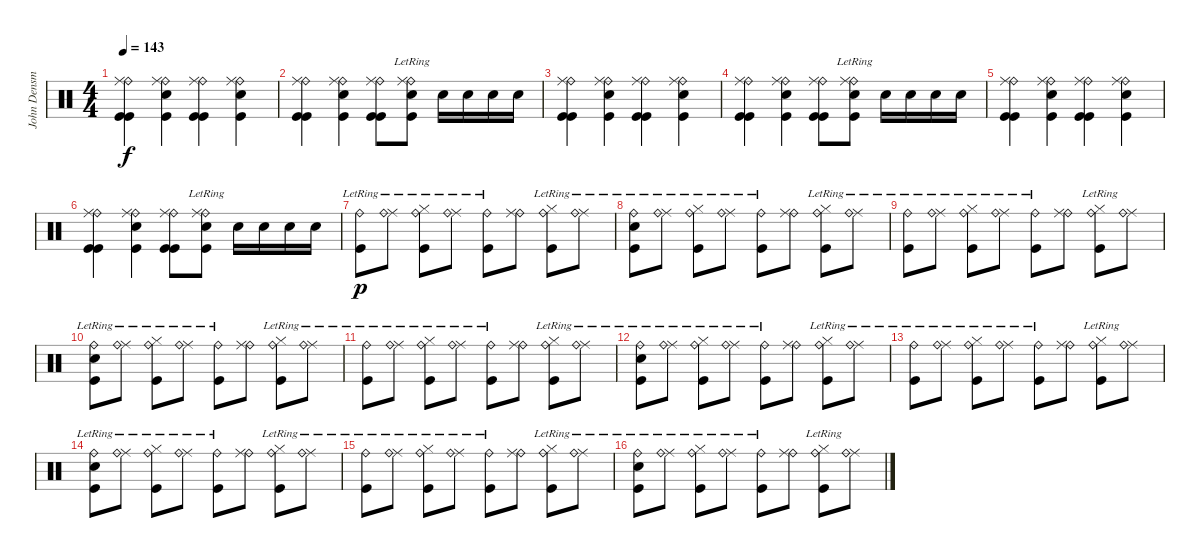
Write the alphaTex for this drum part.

\track ("John Densmore" "John Densm") {instrument percussion}
\staff {score}
\articulation defaults
\ts (4 4)
\tempo 143
\clef neutral
\ks c
("Ride (bell)" "Ride (middle)" "Kick (hit)" "Kick (hit)").4{dy f} ("Ride (bell)" "Ride (middle)" "Kick (hit)" "Snare (hit) 2").4 ("Ride (bell)" "Ride (middle)" "Kick (hit)" "Kick (hit)").4 ("Ride (bell)" "Ride (middle)" "Kick (hit)" "Snare (hit) 2").4 |
("Ride (bell)" "Ride (middle)" "Kick (hit)" "Kick (hit)").4 ("Ride (bell)" "Ride (middle)" "Kick (hit)" "Snare (hit) 2").4 ("Ride (bell)" "Ride (middle)" "Kick (hit)" "Kick (hit)").8 ("Ride (bell)"{lr} "Ride (middle)"{lr} "Kick (hit)" "Snare (hit) 2").8 "Snare (hit) 2".16 "Snare (hit) 2".16 "Snare (hit) 2".16 "Snare (hit) 2".16 |
("Ride (bell)" "Ride (middle)" "Kick (hit)" "Kick (hit)").4 ("Ride (bell)" "Ride (middle)" "Kick (hit)" "Snare (hit) 2").4 ("Ride (bell)" "Ride (middle)" "Kick (hit)" "Kick (hit)").4 ("Ride (bell)" "Ride (middle)" "Kick (hit)" "Snare (hit) 2").4 |
("Ride (bell)" "Ride (middle)" "Kick (hit)" "Kick (hit)").4 ("Ride (bell)" "Ride (middle)" "Kick (hit)" "Snare (hit) 2").4 ("Ride (bell)" "Ride (middle)" "Kick (hit)" "Kick (hit)").8 ("Ride (bell)"{lr} "Ride (middle)"{lr} "Kick (hit)" "Snare (hit) 2").8 "Snare (hit) 2".16 "Snare (hit) 2".16 "Snare (hit) 2".16 "Snare (hit) 2".16 |
("Ride (bell)" "Ride (middle)" "Kick (hit)" "Kick (hit)").4 ("Ride (bell)" "Ride (middle)" "Kick (hit)" "Snare (hit) 2").4 ("Ride (bell)" "Ride (middle)" "Kick (hit)" "Kick (hit)").4 ("Ride (bell)" "Ride (middle)" "Kick (hit)" "Snare (hit) 2").4 |
("Ride (bell)" "Ride (middle)" "Kick (hit)" "Kick (hit)").4 ("Ride (bell)" "Ride (middle)" "Kick (hit)" "Snare (hit) 2").4 ("Ride (bell)" "Ride (middle)" "Kick (hit)" "Kick (hit)").8 ("Ride (bell)"{lr} "Ride (middle)"{lr} "Kick (hit)" "Snare (hit) 2").8 "Snare (hit) 2".16 "Snare (hit) 2".16 "Snare (hit) 2".16 "Snare (hit) 2".16 |
("Ride (bell)"{lr} "Kick (hit)").8{dy p} ("Ride (middle)"{lr} "Ride (bell)"{lr}).8 ("Hi-Hat (closed)" "Ride (bell)"{lr} "Kick (hit)").8 ("Ride (middle)"{lr} "Ride (bell)"{lr}).8 ("Ride (bell)"{lr} "Kick (hit)").8 ("Ride (bell)" "Ride (middle)").8 ("Hi-Hat (closed)" "Ride (bell)"{lr} "Kick (hit)").8 ("Ride (middle)"{lr} "Ride (bell)"{lr}).8 |
("Electric Snare (hit)" "Ride (bell)"{lr} "Kick (hit)").8 ("Ride (middle)"{lr} "Ride (bell)"{lr}).8 ("Hi-Hat (closed)" "Ride (bell)"{lr} "Kick (hit)").8 ("Ride (middle)"{lr} "Ride (bell)"{lr}).8 ("Ride (bell)"{lr} "Kick (hit)").8 ("Ride (bell)" "Ride (middle)").8 ("Hi-Hat (closed)" "Ride (bell)"{lr} "Kick (hit)").8 ("Ride (middle)"{lr} "Ride (bell)"{lr}).8 |
("Ride (bell)"{lr} "Kick (hit)").8 ("Ride (middle)"{lr} "Ride (bell)"{lr}).8 ("Hi-Hat (closed)" "Ride (bell)"{lr} "Kick (hit)").8 ("Ride (middle)"{lr} "Ride (bell)"{lr}).8 ("Ride (bell)"{lr} "Kick (hit)").8 ("Ride (bell)" "Ride (middle)").8 ("Hi-Hat (closed)" "Ride (bell)"{lr} "Kick (hit)").8 ("Ride (middle)"{lr} "Ride (bell)"{lr}).8 |
("Electric Snare (hit)" "Ride (bell)"{lr} "Kick (hit)").8 ("Ride (middle)"{lr} "Ride (bell)"{lr}).8 ("Hi-Hat (closed)" "Ride (bell)"{lr} "Kick (hit)").8 ("Ride (middle)"{lr} "Ride (bell)"{lr}).8 ("Ride (bell)"{lr} "Kick (hit)").8 ("Ride (bell)" "Ride (middle)").8 ("Hi-Hat (closed)" "Ride (bell)"{lr} "Kick (hit)").8 ("Ride (middle)"{lr} "Ride (bell)"{lr}).8 |
("Ride (bell)"{lr} "Kick (hit)").8 ("Ride (middle)"{lr} "Ride (bell)"{lr}).8 ("Hi-Hat (closed)" "Ride (bell)"{lr} "Kick (hit)").8 ("Ride (middle)"{lr} "Ride (bell)"{lr}).8 ("Ride (bell)"{lr} "Kick (hit)").8 ("Ride (bell)" "Ride (middle)").8 ("Hi-Hat (closed)" "Ride (bell)"{lr} "Kick (hit)").8 ("Ride (middle)"{lr} "Ride (bell)"{lr}).8 |
("Electric Snare (hit)" "Ride (bell)"{lr} "Kick (hit)").8 ("Ride (middle)"{lr} "Ride (bell)"{lr}).8 ("Hi-Hat (closed)" "Ride (bell)"{lr} "Kick (hit)").8 ("Ride (middle)"{lr} "Ride (bell)"{lr}).8 ("Ride (bell)"{lr} "Kick (hit)").8 ("Ride (bell)" "Ride (middle)").8 ("Hi-Hat (closed)" "Ride (bell)"{lr} "Kick (hit)").8 ("Ride (middle)"{lr} "Ride (bell)"{lr}).8 |
("Ride (bell)"{lr} "Kick (hit)").8 ("Ride (middle)"{lr} "Ride (bell)"{lr}).8 ("Hi-Hat (closed)" "Ride (bell)"{lr} "Kick (hit)").8 ("Ride (middle)"{lr} "Ride (bell)"{lr}).8 ("Ride (bell)"{lr} "Kick (hit)").8 ("Ride (bell)" "Ride (middle)").8 ("Hi-Hat (closed)" "Ride (bell)"{lr} "Kick (hit)").8 ("Ride (middle)"{lr} "Ride (bell)"{lr}).8 |
("Electric Snare (hit)" "Ride (bell)"{lr} "Kick (hit)").8 ("Ride (middle)"{lr} "Ride (bell)"{lr}).8 ("Hi-Hat (closed)" "Ride (bell)"{lr} "Kick (hit)").8 ("Ride (middle)"{lr} "Ride (bell)"{lr}).8 ("Ride (bell)"{lr} "Kick (hit)").8 ("Ride (bell)" "Ride (middle)").8 ("Hi-Hat (closed)" "Ride (bell)"{lr} "Kick (hit)").8 ("Ride (middle)"{lr} "Ride (bell)"{lr}).8 |
("Ride (bell)"{lr} "Kick (hit)").8 ("Ride (middle)"{lr} "Ride (bell)"{lr}).8 ("Hi-Hat (closed)" "Ride (bell)"{lr} "Kick (hit)").8 ("Ride (middle)"{lr} "Ride (bell)"{lr}).8 ("Ride (bell)"{lr} "Kick (hit)").8 ("Ride (bell)" "Ride (middle)").8 ("Hi-Hat (closed)" "Ride (bell)"{lr} "Kick (hit)").8 ("Ride (middle)"{lr} "Ride (bell)"{lr}).8 |
("Electric Snare (hit)" "Ride (bell)"{lr} "Kick (hit)").8 ("Ride (middle)"{lr} "Ride (bell)"{lr}).8 ("Hi-Hat (closed)" "Ride (bell)"{lr} "Kick (hit)").8 ("Ride (middle)"{lr} "Ride (bell)"{lr}).8 ("Ride (bell)"{lr} "Kick (hit)").8 ("Ride (bell)" "Ride (middle)").8 ("Hi-Hat (closed)" "Ride (bell)"{lr} "Kick (hit)").8 ("Ride (middle)"{lr} "Ride (bell)"{lr}).8
